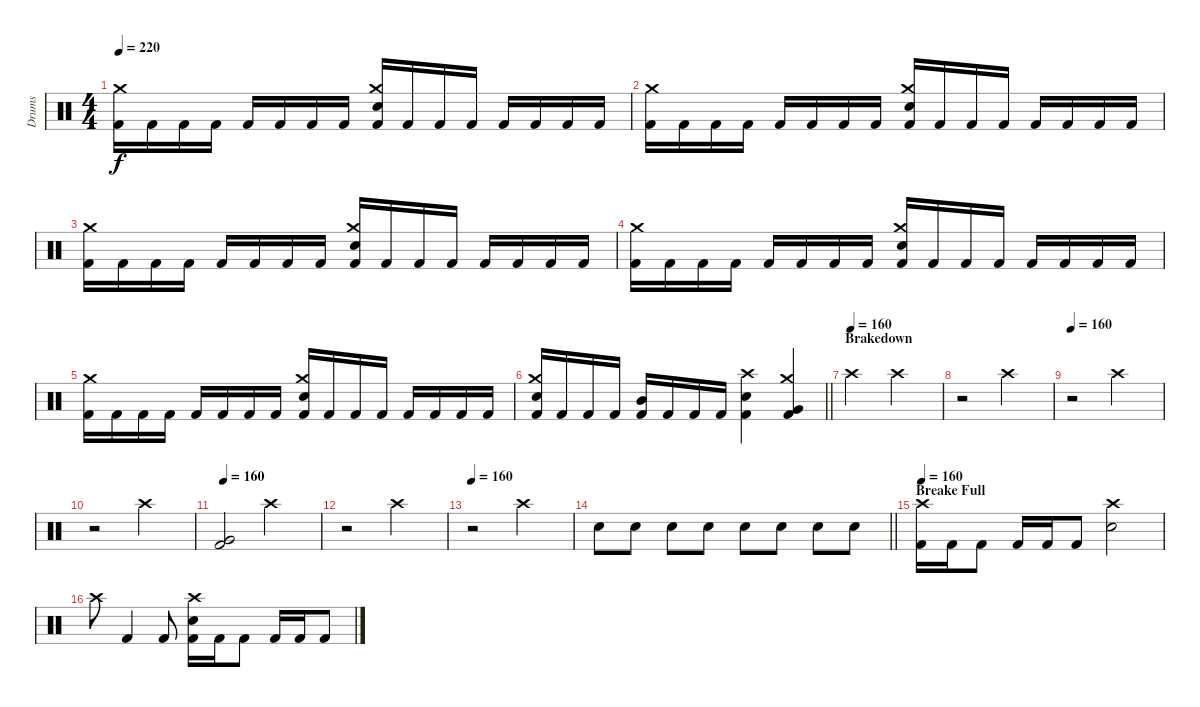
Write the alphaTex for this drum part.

\track ("Drums" "Drums") {instrument percussion}
\staff {score}
\articulation defaults
\ts (4 4)
\tempo 220
\clef neutral
\ks c
("Kick (hit) 2" "Crash medium (hit)").16{dy f} "Kick (hit) 2".16 "Kick (hit) 2".16 "Kick (hit) 2".16 "Kick (hit) 2".16 "Kick (hit) 2".16 "Kick (hit) 2".16 "Kick (hit) 2".16 ("Kick (hit) 2" "Crash medium (hit)" "Electric Snare (hit)").16 "Kick (hit) 2".16 "Kick (hit) 2".16 "Kick (hit) 2".16 "Kick (hit) 2".16 "Kick (hit) 2".16 "Kick (hit) 2".16 "Kick (hit) 2".16 |
("Kick (hit) 2" "Crash medium (hit)").16 "Kick (hit) 2".16 "Kick (hit) 2".16 "Kick (hit) 2".16 "Kick (hit) 2".16 "Kick (hit) 2".16 "Kick (hit) 2".16 "Kick (hit) 2".16 ("Kick (hit) 2" "Crash medium (hit)" "Electric Snare (hit)").16 "Kick (hit) 2".16 "Kick (hit) 2".16 "Kick (hit) 2".16 "Kick (hit) 2".16 "Kick (hit) 2".16 "Kick (hit) 2".16 "Kick (hit) 2".16 |
("Kick (hit) 2" "Crash medium (hit)").16 "Kick (hit) 2".16 "Kick (hit) 2".16 "Kick (hit) 2".16 "Kick (hit) 2".16 "Kick (hit) 2".16 "Kick (hit) 2".16 "Kick (hit) 2".16 ("Kick (hit) 2" "Crash medium (hit)" "Electric Snare (hit)").16 "Kick (hit) 2".16 "Kick (hit) 2".16 "Kick (hit) 2".16 "Kick (hit) 2".16 "Kick (hit) 2".16 "Kick (hit) 2".16 "Kick (hit) 2".16 |
("Kick (hit) 2" "Crash medium (hit)").16 "Kick (hit) 2".16 "Kick (hit) 2".16 "Kick (hit) 2".16 "Kick (hit) 2".16 "Kick (hit) 2".16 "Kick (hit) 2".16 "Kick (hit) 2".16 ("Kick (hit) 2" "Crash medium (hit)" "Electric Snare (hit)").16 "Kick (hit) 2".16 "Kick (hit) 2".16 "Kick (hit) 2".16 "Kick (hit) 2".16 "Kick (hit) 2".16 "Kick (hit) 2".16 "Kick (hit) 2".16 |
("Kick (hit) 2" "Crash medium (hit)").16 "Kick (hit) 2".16 "Kick (hit) 2".16 "Kick (hit) 2".16 "Kick (hit) 2".16 "Kick (hit) 2".16 "Kick (hit) 2".16 "Kick (hit) 2".16 ("Kick (hit) 2" "Crash medium (hit)" "Electric Snare (hit)").16 "Kick (hit) 2".16 "Kick (hit) 2".16 "Kick (hit) 2".16 "Kick (hit) 2".16 "Kick (hit) 2".16 "Kick (hit) 2".16 "Kick (hit) 2".16 |
\barLineRight lightlight
("Kick (hit) 2" "Crash medium (hit)" "Electric Snare (hit)").16 "Kick (hit) 2".16 "Kick (hit) 2".16 "Kick (hit) 2".16 ("Kick (hit) 2" "Mid Tom (hit)").16 "Kick (hit) 2".16 "Kick (hit) 2".16 "Kick (hit) 2".16 ("Electric Snare (hit)" "Kick (hit) 2" "Crash high (hit)").4 ("Very Low Tom (hit)" "Kick (hit) 2" "Crash medium (hit)").4 |
\section ("" "Brakedown")
\tempo 165
\tempo (160)
"Crash high (hit)".2 "Crash high (hit)".2 |
r.2 "Crash high (hit)".2 |
\tempo 160
r.2 "Crash high (hit)".2 |
r.2 "Crash high (hit)".2 |
\tempo 160
("Very Low Tom (hit)" "Kick (hit) 2").2 "Crash high (hit)".2 |
r.2 "Crash high (hit)".2 |
\tempo 160
r.2 "Crash high (hit)".2 |
\barLineRight lightlight "Electric Snare (hit)".8 "Electric Snare (hit)".8 "Electric Snare (hit)".8 "Electric Snare (hit)".8 "Electric Snare (hit)".8 "Electric Snare (hit)".8 "Electric Snare (hit)".8 "Electric Snare (hit)".8
|
\section ("" "Breake Full")
\tempo 160
("Kick (hit) 2" "Crash high (hit)").16 "Kick (hit) 2".16 "Kick (hit) 2".8 "Kick (hit) 2".16 "Kick (hit) 2".16 "Kick (hit) 2".8 ("Electric Snare (hit)" "Crash high (hit)").2 |
"Crash high (hit)".8 "Kick (hit) 2".4 "Kick (hit) 2".8 ("Kick (hit) 2" "Electric Snare (hit)" "Crash high (hit)").16 "Kick (hit) 2".16 "Kick (hit) 2".8 "Kick (hit) 2".16 "Kick (hit) 2".16 "Kick (hit) 2".8
